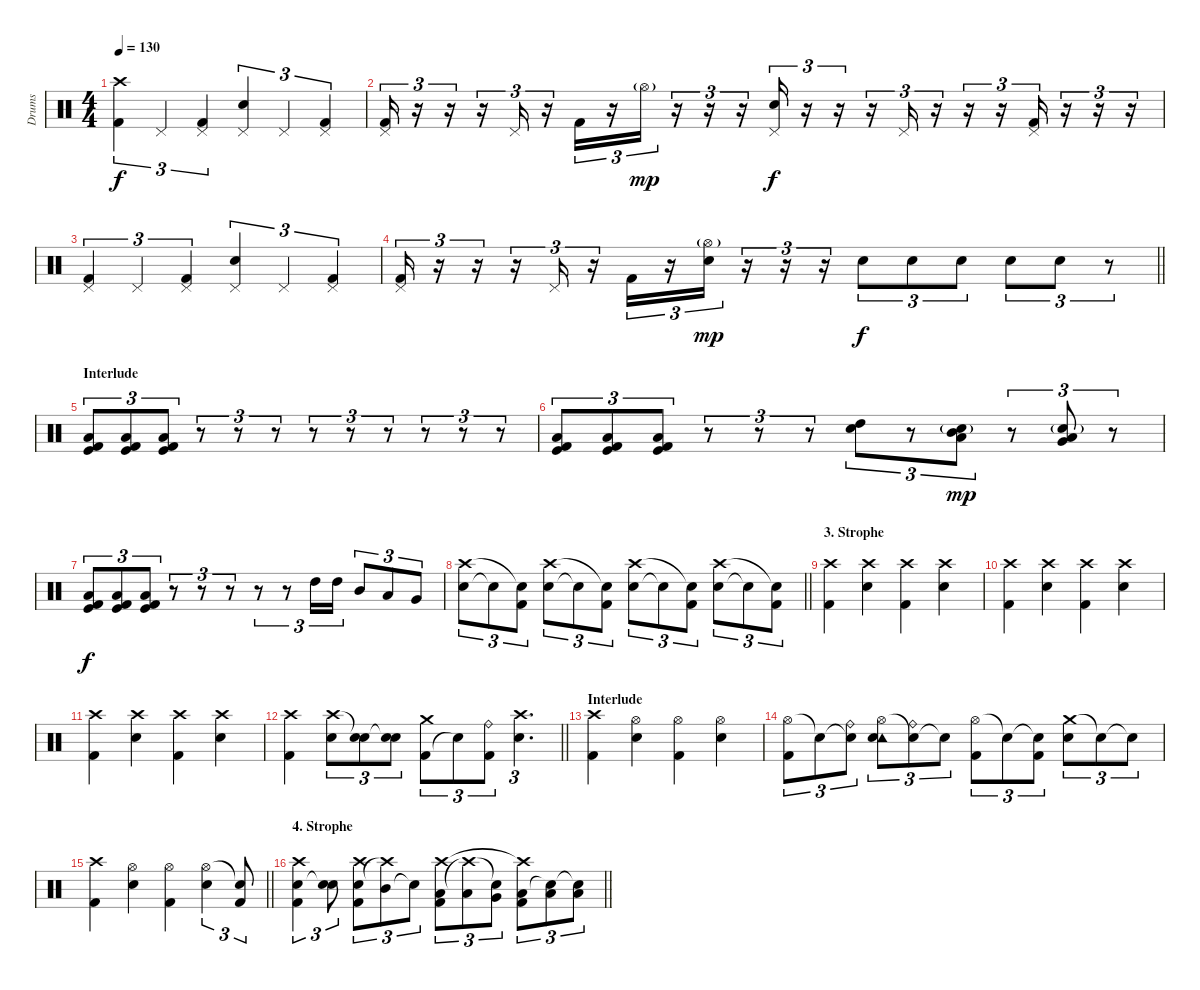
\track ("Drums" "Drums") {instrument percussion}
\staff {score}
\articulation defaults
\ts (4 4)
\tempo 130
\clef neutral
\ks c
("Crash high (hit)" "Kick (hit) 2").4{tu (3 2) dy f} "Pedal Hi-Hat (hit)".4{tu (3 2)} ("Pedal Hi-Hat (hit)" "Kick (hit) 2").4{tu (3 2)} ("Pedal Hi-Hat (hit)" "Snare (hit) 2").4{tu (3 2)} "Pedal Hi-Hat (hit)".4{tu (3 2)} ("Pedal Hi-Hat (hit)" "Kick (hit) 2").4{tu (3 2)} |
("Pedal Hi-Hat (hit)" "Kick (hit) 2").16{tu (3 2)} r.16{tu (3 2)} r.16{tu (3 2)} r.16{tu (3 2)} "Pedal Hi-Hat (hit)".16{tu (3 2)} r.16{tu (3 2)} "Kick (hit) 2".16{tu (3 2)} r.16{tu (3 2)} "Hi-Hat (open)"{g}.16{tu (3 2) dy mp} r.16{tu (3 2)} r.16{tu (3 2)} r.16{tu (3 2)} ("Pedal Hi-Hat (hit)" "Snare (hit) 2").16{tu (3 2) dy f} r.16{tu (3 2)} r.16{tu (3 2)} r.16{tu (3 2)} "Pedal Hi-Hat (hit)".16{tu (3 2)} r.16{tu (3 2)} r.16{tu (3 2)} r.16{tu (3 2)} ("Pedal Hi-Hat (hit)" "Kick (hit) 2").16{tu (3 2)} r.16{tu (3 2)} r.16{tu (3 2)} r.16{tu (3 2)} |
("Pedal Hi-Hat (hit)" "Kick (hit) 2").4{tu (3 2)} "Pedal Hi-Hat (hit)".4{tu (3 2)} ("Pedal Hi-Hat (hit)" "Kick (hit) 2").4{tu (3 2)} ("Pedal Hi-Hat (hit)" "Snare (hit) 2").4{tu (3 2)} "Pedal Hi-Hat (hit)".4{tu (3 2)} ("Pedal Hi-Hat (hit)" "Kick (hit) 2").4{tu (3 2)} |
\barLineRight lightlight
("Pedal Hi-Hat (hit)" "Kick (hit) 2").16{tu (3 2)} r.16{tu (3 2)} r.16{tu (3 2)} r.16{tu (3 2)} "Pedal Hi-Hat (hit)".16{tu (3 2)} r.16{tu (3 2)} "Kick (hit) 2".16{tu (3 2)} r.16{tu (3 2)} ("Hi-Hat (open)"{g} "Snare (hit) 2").16{tu (3 2) dy mp} r.16{tu (3 2)} r.16{tu (3 2)} r.16{tu (3 2)} "Snare (hit) 2".8{tu (3 2) dy f} "Snare (hit) 2".8{tu (3 2)} "Snare (hit) 2".8{tu (3 2)} "Snare (hit) 2".8{tu (3 2)} "Snare (hit) 2".8{tu (3 2)} r.8{tu (3 2)} |
\section ("" "Interlude")
("Low Floor Tom (hit)" "Kick (hit) 2" "Kick (hit)").8{tu (3 2)} ("Low Floor Tom (hit)" "Kick (hit) 2" "Kick (hit)").8{tu (3 2)} ("Low Floor Tom (hit)" "Kick (hit) 2" "Kick (hit)").8{tu (3 2)} r.8{tu (3 2)} r.8{tu (3 2)} r.8{tu (3 2)} r.8{tu (3 2)} r.8{tu (3 2)} r.8{tu (3 2)} r.8{tu (3 2)} r.8{tu (3 2)} r.8{tu (3 2)} |
("Low Floor Tom (hit)" "Kick (hit) 2" "Kick (hit)").8{tu (3 2)} ("Low Floor Tom (hit)" "Kick (hit) 2" "Kick (hit)").8{tu (3 2)} ("Low Floor Tom (hit)" "Kick (hit) 2" "Kick (hit)").8{tu (3 2)} r.8{tu (3 2)} r.8{tu (3 2)} r.8{tu (3 2)} ("High Tom (hit)" "Electric Snare (hit)").8{tu (3 2)} r.8{tu (3 2)} ("Mid Tom (hit)" "Low Tom (hit)" "Electric Snare (hit)"{g}).8{tu (3 2) dy mp} r.8{tu (3 2)} ("Low Tom (hit)" "Very Low Tom (hit)" "Electric Snare (hit)"{g}).8{tu (3 2)} r.8{tu (3 2)} |
("Low Floor Tom (hit)" "Kick (hit) 2" "Kick (hit)").8{tu (3 2) dy f} ("Low Floor Tom (hit)" "Kick (hit) 2" "Kick (hit)").8{tu (3 2)} ("Low Floor Tom (hit)" "Kick (hit) 2" "Kick (hit)").8{tu (3 2)} r.8{tu (3 2)} r.8{tu (3 2)} r.8{tu (3 2)} r.8{tu (3 2)} r.8{tu (3 2)} "High Tom (hit)".16{tu (3 2)} "High Tom (hit)".16{tu (3 2)} "Mid Tom (hit)".8{tu (3 2)} "Low Tom (hit)".8{tu (3 2)} "Very Low Tom (hit)".8{tu (3 2)} |
\barLineRight lightlight
("Snare (hit) 2" "Crash high (hit)").8{tu (3 2)} "Snare (hit)"{t}.8{tu (3 2)} ("Kick (hit) 2" "Snare (hit)"{t}).8{tu (3 2)} ("Snare (hit) 2" "Crash high (hit)").8{tu (3 2)} "Snare (hit)"{t}.8{tu (3 2)} ("Kick (hit) 2" "Snare (hit)"{t}).8{tu (3 2)} ("Snare (hit) 2" "Crash high (hit)").8{tu (3 2)} "Snare (hit)"{t}.8{tu (3 2)} ("Kick (hit) 2" "Snare (hit)"{t}).8{tu (3 2)} ("Snare (hit) 2" "Crash high (hit)").8{tu (3 2)} "Snare (hit)"{t}.8{tu (3 2)} ("Kick (hit) 2" "Snare (hit)"{t}).8{tu (3 2)} |
\section ("" "3. Strophe")
("Kick (hit) 2" "Crash high (hit)").4 ("Snare (hit) 2" "Crash high (hit)").4 ("Kick (hit) 2" "Crash high (hit)").4 ("Snare (hit) 2" "Crash high (hit)").4 |
("Kick (hit) 2" "Crash high (hit)").4 ("Snare (hit) 2" "Crash high (hit)").4 ("Kick (hit) 2" "Crash high (hit)").4 ("Snare (hit) 2" "Crash high (hit)").4 |
("Kick (hit) 2" "Crash high (hit)").4 ("Snare (hit) 2" "Crash high (hit)").4 ("Kick (hit) 2" "Crash high (hit)").4 ("Snare (hit) 2" "Crash high (hit)").4 |
\barLineRight lightlight
("Kick (hit) 2" "Crash high (hit)").4 ("Snare (hit) 2" "Crash high (hit)").8{tu (3 2)} ("Snare (hit) 2" "Snare (hit)"{t}).8{tu (3 2)} ("Snare (hit) 2" "Snare (hit)"{t}).8{tu (3 2)} ("Kick (hit) 2" "Crash medium (hit)").8{tu (3 2)} "Snare (hit)"{t}.8{tu (3 2)} ("Kick (hit) 2" "Ride (bell)").8{tu (3 2)} ("Snare (hit) 2" "Crash high (hit)").4{d tu (3 2)} |
\section ("" "Interlude")
("Kick (hit) 2" "Crash high (hit)").4 ("Snare (hit) 2" "Hi-Hat (open)").4 ("Kick (hit) 2" "Hi-Hat (open)").4 ("Snare (hit) 2" "Hi-Hat (open)").4 |
("Hi-Hat (open)" "Kick (hit) 2").8{tu (3 2)} "Snare (hit)"{t}.8{tu (3 2)} ("Snare (hit)"{t} "Ride (bell)").8{tu (3 2)} ("Hi-Hat (open)" "Tambourine (hit)" "Snare (hit) 2").8{tu (3 2)} ("Snare (hit)"{t} "Ride (bell)").8{tu (3 2)} "Snare (hit)"{t}.8{tu (3 2)} ("Hi-Hat (open)" "Kick (hit) 2").8{tu (3 2)} "Snare (hit)"{t}.8{tu (3 2)} ("Snare (hit)"{t} "Kick (hit) 2").8{tu (3 2)} ("Crash medium (hit)" "Snare (hit) 2").8{tu (3 2)} "Snare (hit)"{t}.8{tu (3 2)} "Snare (hit)"{t}.8{tu (3 2)} |
\barLineRight lightlight
("Kick (hit) 2" "Crash high (hit)").4 ("Snare (hit) 2" "Hi-Hat (open)").4 ("Kick (hit) 2" "Hi-Hat (open)").4 ("Snare (hit) 2" "Hi-Hat (open)").4{tu (3 2)} ("Kick (hit) 2" "Snare (hit)"{t}).8{tu (3 2)} |
\section ("" "4. Strophe")
\barLineRight lightlight
("Kick (hit) 2" "Electric Snare (hit)" "Crash high (hit)").4{tu (3 2)} ("Electric Snare (hit)" "Snare (hit)"{t}).8{tu (3 2)} ("Kick (hit) 2" "Electric Snare (hit)" "Crash high (hit)").8{tu (3 2)} ("Mid Tom (hit)" "Crash high (hit)"{t}).8{tu (3 2)} "Snare (hit)"{t}.8{tu (3 2)} ("Kick (hit) 2" "Low Tom (hit)" "Crash high (hit)").8{tu (3 2)} ("Low Tom (hit)" "Crash high (hit)"{t}).8{tu (3 2)} ("Very Low Tom (hit)" "Snare (hit)"{t}).8{tu (3 2)} ("Kick (hit) 2" "Low Floor Tom (hit)" "Crash high (hit)"{t}).8{tu (3 2)} ("Low Floor Tom (hit)" "Snare (hit)"{t}).8{tu (3 2)} ("Low Floor Tom (hit)" "Snare (hit)"{t}).8{tu (3 2)}
